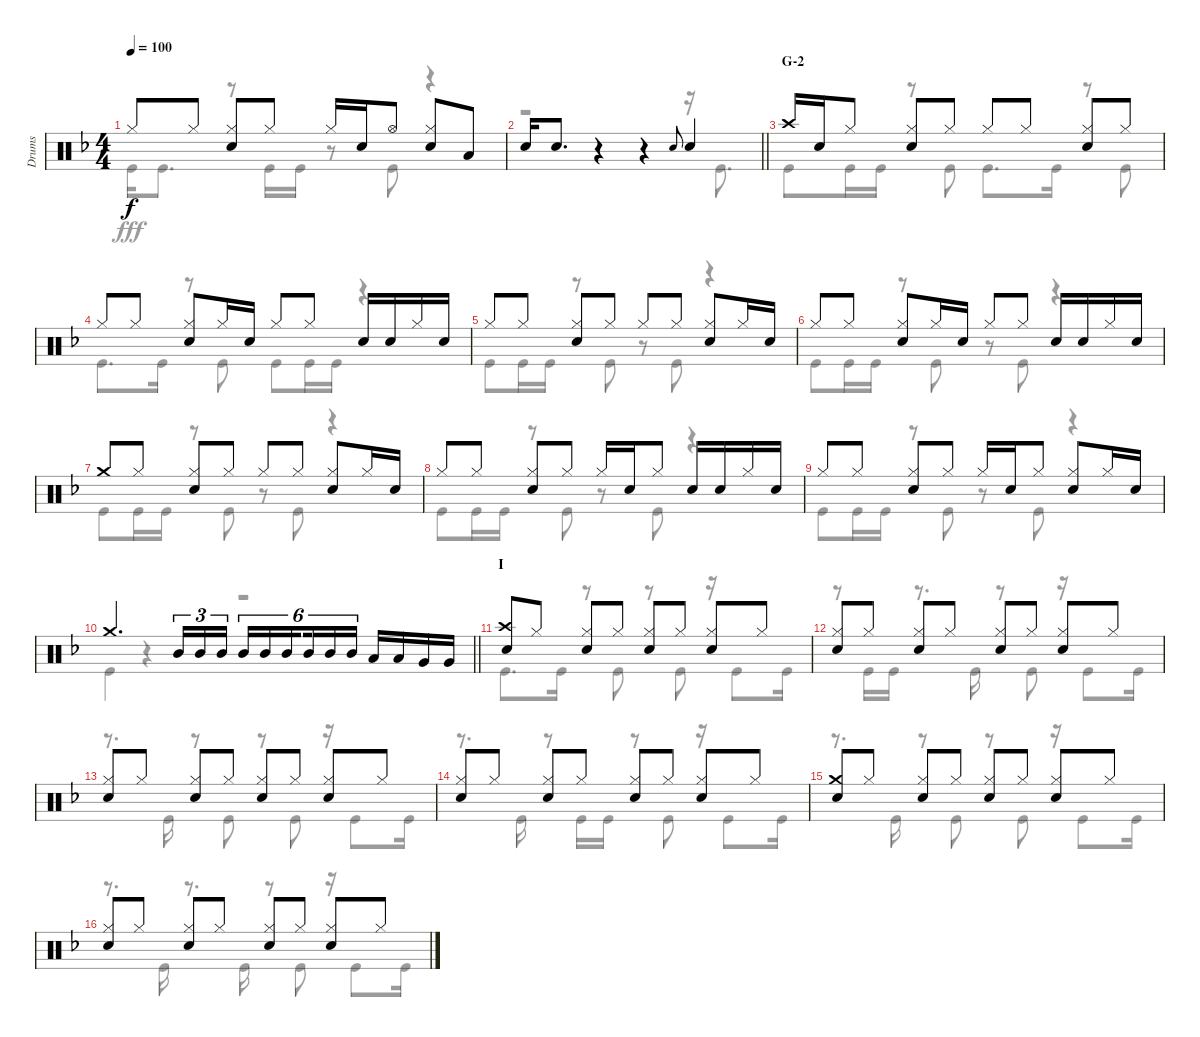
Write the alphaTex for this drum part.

\track ("Drums" "Drums") {instrument percussion}
\staff {score}
\articulation defaults
\voice
\ts (4 4)
\tempo 100
\clef neutral
\ks f "Hi-Hat (closed)".8{dy f} "Hi-Hat (closed)".8
("Hi-Hat (closed)" "Snare (hit) 2").8 "Hi-Hat (closed)".8 "Hi-Hat (closed)".16 "Snare (hit) 2".16 "Hi-Hat (open)".8 ("Hi-Hat (closed)" "Snare (hit) 2").8 "Low Tom (hit)".8 |
\barLineRight lightlight "Snare (hit) 2".16 "Snare (hit) 2".8{d}
r.4 r.4 "Snare (hit) 2".8{gr onbeat} "Snare (hit) 2".4 |
\section ("" "G-2")
"Crash high (hit)".16 "Snare (hit) 2".16 "Hi-Hat (closed)".8 ("Hi-Hat (closed)" "Snare (hit) 2").8 "Hi-Hat (closed)".8 "Hi-Hat (closed)".8 "Hi-Hat (closed)".8 ("Hi-Hat (closed)" "Snare (hit) 2").8 "Hi-Hat (closed)".8 |
"Hi-Hat (closed)".8 "Hi-Hat (closed)".8 ("Hi-Hat (closed)" "Snare (hit) 2").8 "Hi-Hat (closed)".16 "Snare (hit) 2".16 "Hi-Hat (closed)".8 "Hi-Hat (closed)".8 "Snare (hit) 2".16 "Snare (hit) 2".16 "Hi-Hat (closed)".16 "Snare (hit) 2".16 |
"Hi-Hat (closed)".8 "Hi-Hat (closed)".8 ("Hi-Hat (closed)" "Snare (hit) 2").8 "Hi-Hat (closed)".8 "Hi-Hat (closed)".8 "Hi-Hat (closed)".8 ("Hi-Hat (closed)" "Snare (hit) 2").8 "Hi-Hat (closed)".16 "Snare (hit) 2".16 |
"Hi-Hat (closed)".8 "Hi-Hat (closed)".8 ("Hi-Hat (closed)" "Snare (hit) 2").8 "Hi-Hat (closed)".16 "Snare (hit) 2".16 "Hi-Hat (closed)".8 "Hi-Hat (closed)".8 "Snare (hit) 2".16 "Snare (hit) 2".16 "Hi-Hat (closed)".16 "Snare (hit) 2".16 |
"Crash medium (hit)".8 "Hi-Hat (closed)".8 ("Hi-Hat (closed)" "Snare (hit) 2").8 "Hi-Hat (closed)".8 "Hi-Hat (closed)".8 "Hi-Hat (closed)".8 ("Hi-Hat (closed)" "Snare (hit) 2").8 "Hi-Hat (closed)".16 "Snare (hit) 2".16 |
"Hi-Hat (closed)".8 "Hi-Hat (closed)".8 ("Hi-Hat (closed)" "Snare (hit) 2").8 "Hi-Hat (closed)".8 "Hi-Hat (closed)".16 "Snare (hit) 2".16 "Hi-Hat (closed)".8 "Snare (hit) 2".16 "Snare (hit) 2".16 "Hi-Hat (closed)".16 "Snare (hit) 2".16 |
"Hi-Hat (closed)".8 "Hi-Hat (closed)".8 ("Hi-Hat (closed)" "Snare (hit) 2").8 "Hi-Hat (closed)".8 "Hi-Hat (closed)".16 "Snare (hit) 2".16 "Hi-Hat (closed)".8 ("Hi-Hat (closed)" "Snare (hit) 2").8 "Hi-Hat (closed)".16 "Snare (hit) 2".16 |
\barLineRight lightlight "Crash medium (hit)".4{d} "Mid Tom (hit)".16{tu (3 2)} "Mid Tom (hit)".16{tu (3 2)} "Mid Tom (hit)".16{tu (3 2)} "Mid Tom (hit)".16{tu (6 4)} "Mid Tom (hit)".16{tu (6 4)} "Mid Tom (hit)".16{tu (6 4) beam splitsecondary} "Mid Tom (hit)".16{tu (6 4)} "Mid Tom (hit)".16{tu (6 4)} "Mid Tom (hit)".16{tu (6 4)} "Low Tom (hit)".16 "Low Tom (hit)".16 "Very Low Tom (hit)".16 "Very Low Tom (hit)".16
|
\section ("" "I")
("Crash high (hit)" "Snare (hit) 2").8 "Hi-Hat (closed)".8 ("Hi-Hat (closed)" "Snare (hit) 2").8 "Hi-Hat (closed)".8 ("Hi-Hat (closed)" "Snare (hit) 2").8 "Hi-Hat (closed)".8 ("Hi-Hat (closed)" "Snare (hit) 2").8 "Hi-Hat (closed)".8 |
("Hi-Hat (closed)" "Snare (hit) 2").8 "Hi-Hat (closed)".8 ("Hi-Hat (closed)" "Snare (hit) 2").8 "Hi-Hat (closed)".8 ("Hi-Hat (closed)" "Snare (hit) 2").8 "Hi-Hat (closed)".8 ("Hi-Hat (closed)" "Snare (hit) 2").8 "Hi-Hat (closed)".8 |
("Hi-Hat (closed)" "Snare (hit) 2").8 "Hi-Hat (closed)".8 ("Hi-Hat (closed)" "Snare (hit) 2").8 "Hi-Hat (closed)".8 ("Hi-Hat (closed)" "Snare (hit) 2").8 "Hi-Hat (closed)".8 ("Hi-Hat (closed)" "Snare (hit) 2").8 "Hi-Hat (closed)".8 |
("Hi-Hat (closed)" "Snare (hit) 2").8 "Hi-Hat (closed)".8 ("Hi-Hat (closed)" "Snare (hit) 2").8 "Hi-Hat (closed)".8 ("Hi-Hat (closed)" "Snare (hit) 2").8 "Hi-Hat (closed)".8 ("Hi-Hat (closed)" "Snare (hit) 2").8 "Hi-Hat (closed)".8 |
("Crash medium (hit)" "Snare (hit) 2").8 "Hi-Hat (closed)".8 ("Hi-Hat (closed)" "Snare (hit) 2").8 "Hi-Hat (closed)".8 ("Hi-Hat (closed)" "Snare (hit) 2").8 "Hi-Hat (closed)".8 ("Hi-Hat (closed)" "Snare (hit) 2").8 "Hi-Hat (closed)".8 |
("Hi-Hat (closed)" "Snare (hit) 2").8 "Hi-Hat (closed)".8 ("Hi-Hat (closed)" "Snare (hit) 2").8 "Hi-Hat (closed)".8 ("Hi-Hat (closed)" "Snare (hit) 2").8 "Hi-Hat (closed)".8 ("Hi-Hat (closed)" "Snare (hit) 2").8 "Hi-Hat (closed)".8
\voice
\clef neutral
\ottava regular
\simile none
\ks f "Kick (hit)".16{dy fff} "Kick (hit)".8{d}
r.8 "Kick (hit)".16 "Kick (hit)".16 r.8 "Kick (hit)".8 r.4 |
\barLineRight lightlight
r.2 r.4 r.16 "Kick (hit)".8{d} |
"Kick (hit)".8 "Kick (hit)".16 "Kick (hit)".16 r.8 "Kick (hit)".8 "Kick (hit)".8{d} "Kick (hit)".16 r.8 "Kick (hit)".8 |
"Kick (hit)".8{d} "Kick (hit)".16 r.8 "Kick (hit)".8 "Kick (hit)".8 "Kick (hit)".16 "Kick (hit)".16 r.4 |
"Kick (hit)".8 "Kick (hit)".16 "Kick (hit)".16 r.8 "Kick (hit)".8 r.8 "Kick (hit)".8 r.4 |
"Kick (hit)".8 "Kick (hit)".16 "Kick (hit)".16 r.8 "Kick (hit)".8 r.8 "Kick (hit)".8 r.4 |
"Kick (hit)".8 "Kick (hit)".16 "Kick (hit)".16 r.8 "Kick (hit)".8 r.8 "Kick (hit)".8 r.4 |
"Kick (hit)".8 "Kick (hit)".16 "Kick (hit)".16 r.8 "Kick (hit)".8 r.8 "Kick (hit)".8 r.4 |
"Kick (hit)".8 "Kick (hit)".16 "Kick (hit)".16 r.8 "Kick (hit)".8 r.8 "Kick (hit)".8 r.4 |
\barLineRight lightlight "Kick (hit)".4
r.4 r.2 |
"Kick (hit)".8{d} "Kick (hit)".16 r.8 "Kick (hit)".8 r.8 "Kick (hit)".8 r.16 "Kick (hit)".8 "Kick (hit)".16 |
r.8 "Kick (hit)".16 "Kick (hit)".16 r.8{d} "Kick (hit)".16 r.8 "Kick (hit)".8 r.16 "Kick (hit)".8 "Kick (hit)".16 |
r.8{d} "Kick (hit)".16 r.8 "Kick (hit)".8 r.8 "Kick (hit)".8 r.16 "Kick (hit)".8 "Kick (hit)".16 |
r.8{d} "Kick (hit)".16 r.8 "Kick (hit)".16 "Kick (hit)".16 r.8 "Kick (hit)".8 r.16 "Kick (hit)".8 "Kick (hit)".16 |
r.8{d} "Kick (hit)".16 r.8 "Kick (hit)".8 r.8 "Kick (hit)".8 r.16 "Kick (hit)".8 "Kick (hit)".16 |
r.8{d} "Kick (hit)".16 r.8{d} "Kick (hit)".16 r.8 "Kick (hit)".8 r.16 "Kick (hit)".8 "Kick (hit)".16
